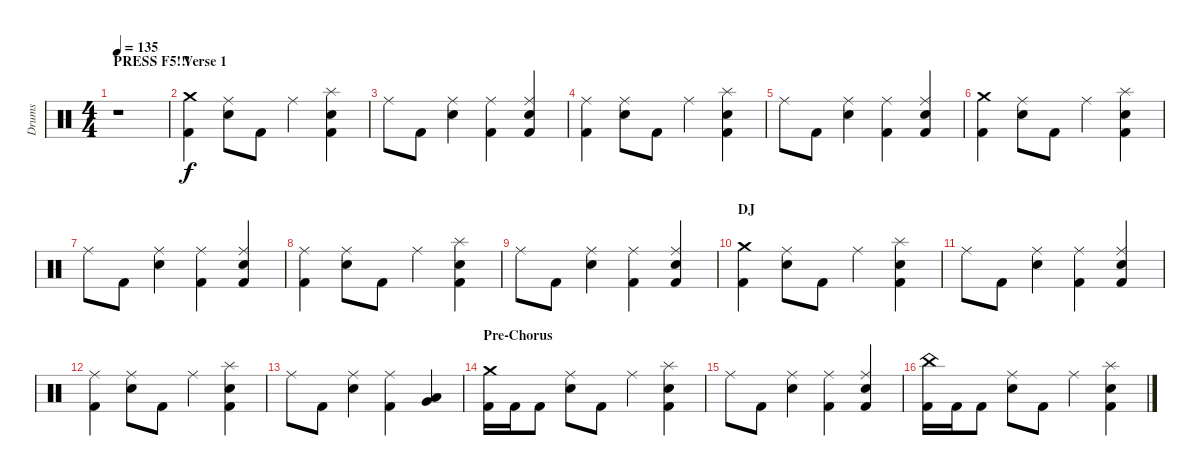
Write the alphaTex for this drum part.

\track ("Drums" "Drums") {instrument percussion}
\staff {score}
\articulation defaults
\ts (4 4)
\section ("" "PRESS F5!!!")
\tempo 135
\clef neutral
\ks c
r.1{dy f} |
\section ("" "Verse 1")
("Crash medium (hit)" "Kick (hit) 2").4 ("Ride (middle)" "Snare (hit) 2").8 "Kick (hit) 2".8 "Ride (middle)".4 ("Splash (hit)" "Snare (hit) 2" "Kick (hit) 2").4 |
"Ride (middle)".8 "Kick (hit) 2".8 ("Ride (middle)" "Snare (hit) 2").4 ("Ride (middle)" "Kick (hit) 2").4 ("Ride (middle)" "Snare (hit) 2" "Kick (hit) 2").4 |
("Ride (middle)" "Kick (hit) 2").4 ("Ride (middle)" "Snare (hit) 2").8 "Kick (hit) 2".8 "Ride (middle)".4 ("Splash (hit)" "Snare (hit) 2" "Kick (hit) 2").4 |
"Ride (middle)".8 "Kick (hit) 2".8 ("Ride (middle)" "Snare (hit) 2").4 ("Ride (middle)" "Kick (hit) 2").4 ("Ride (middle)" "Snare (hit) 2" "Kick (hit) 2").4 |
("Crash medium (hit)" "Kick (hit) 2").4 ("Ride (middle)" "Snare (hit) 2").8 "Kick (hit) 2".8 "Ride (middle)".4 ("Splash (hit)" "Snare (hit) 2" "Kick (hit) 2").4 |
"Ride (middle)".8 "Kick (hit) 2".8 ("Ride (middle)" "Snare (hit) 2").4 ("Ride (middle)" "Kick (hit) 2").4 ("Ride (middle)" "Snare (hit) 2" "Kick (hit) 2").4 |
("Ride (middle)" "Kick (hit) 2").4 ("Ride (middle)" "Snare (hit) 2").8 "Kick (hit) 2".8 "Ride (middle)".4 ("Splash (hit)" "Snare (hit) 2" "Kick (hit) 2").4 |
"Ride (middle)".8 "Kick (hit) 2".8 ("Ride (middle)" "Snare (hit) 2").4 ("Ride (middle)" "Kick (hit) 2").4 ("Ride (middle)" "Snare (hit) 2" "Kick (hit) 2").4 |
\section ("" "DJ")
("Crash medium (hit)" "Kick (hit) 2").4 ("Ride (middle)" "Snare (hit) 2").8 "Kick (hit) 2".8 "Ride (middle)".4 ("Splash (hit)" "Snare (hit) 2" "Kick (hit) 2").4 |
"Ride (middle)".8 "Kick (hit) 2".8 ("Ride (middle)" "Snare (hit) 2").4 ("Ride (middle)" "Kick (hit) 2").4 ("Ride (middle)" "Snare (hit) 2" "Kick (hit) 2").4 |
("Ride (middle)" "Kick (hit) 2").4 ("Ride (middle)" "Snare (hit) 2").8 "Kick (hit) 2".8 "Ride (middle)".4 ("Splash (hit)" "Snare (hit) 2" "Kick (hit) 2").4 |
"Ride (middle)".8 "Kick (hit) 2".8 ("Ride (middle)" "Snare (hit) 2").4 ("Ride (middle)" "Kick (hit) 2").4 ("Low Tom (hit)" "Very Low Tom (hit)").4{bd 240} |
\section ("" "Pre-Chorus")
("Crash medium (hit)" "Kick (hit) 2").16 "Kick (hit) 2".16 "Kick (hit) 2".8 ("Ride (middle)" "Snare (hit) 2").8 "Kick (hit) 2".8 "Ride (middle)".4 ("Splash (hit)" "Snare (hit) 2" "Kick (hit) 2").4 |
"Ride (middle)".8 "Kick (hit) 2".8 ("Ride (middle)" "Snare (hit) 2").4 ("Ride (middle)" "Kick (hit) 2").4 ("Ride (middle)" "Snare (hit) 2" "Kick (hit) 2").4 |
("China (hit)" "Kick (hit) 2").16 "Kick (hit) 2".16 "Kick (hit) 2".8 ("Ride (middle)" "Snare (hit) 2").8 "Kick (hit) 2".8 "Ride (middle)".4 ("Splash (hit)" "Snare (hit) 2" "Kick (hit) 2").4
